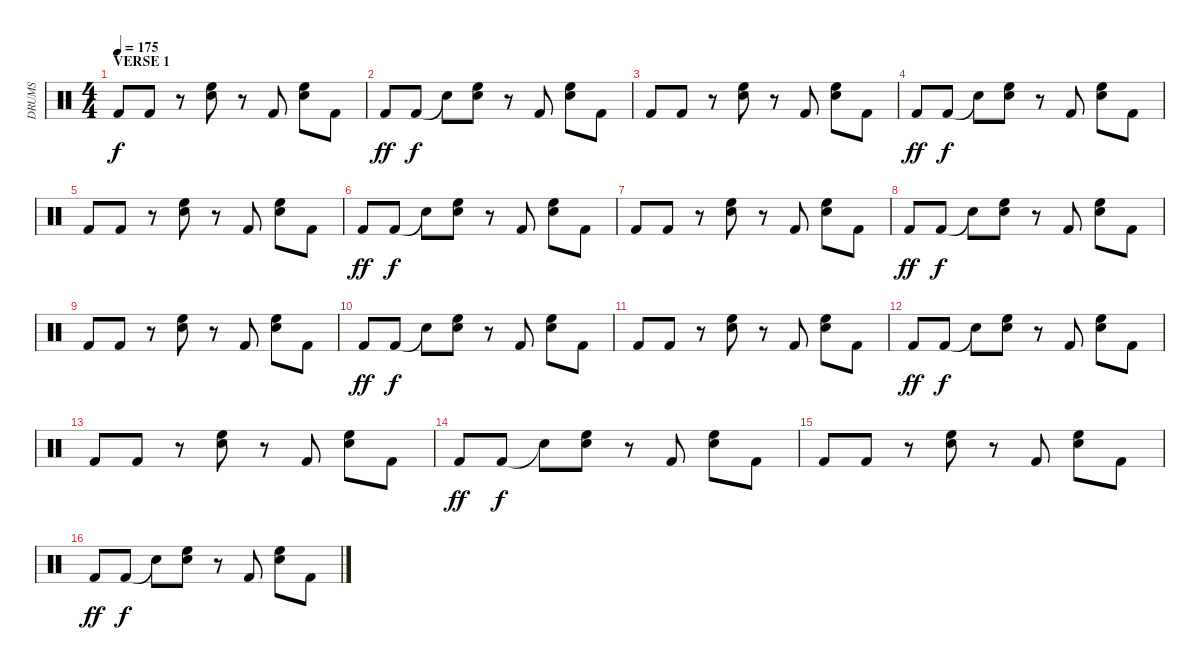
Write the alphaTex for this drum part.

\track ("DRUMS" "DRUMS") {instrument percussion}
\staff {score}
\articulation defaults
\ts (4 4)
\section ("" "VERSE 1")
\tempo 175
\clef neutral
\ks c "Kick (hit) 2".8{dy f} "Kick (hit) 2".8
r.8 ("High Floor Tom (hit)" "Electric Snare (hit)").8 r.8 "Kick (hit) 2".8 ("High Floor Tom (hit)" "Electric Snare (hit)").8 "Kick (hit) 2".8 |
"Kick (hit) 2".8{dy ff} "Kick (hit) 2".8{dy f} "Snare (hit)"{t}.8 ("High Floor Tom (hit)" "Electric Snare (hit)").8 r.8 "Kick (hit) 2".8 ("High Floor Tom (hit)" "Electric Snare (hit)").8 "Kick (hit) 2".8 |
"Kick (hit) 2".8 "Kick (hit) 2".8 r.8 ("High Floor Tom (hit)" "Electric Snare (hit)").8 r.8 "Kick (hit) 2".8 ("High Floor Tom (hit)" "Electric Snare (hit)").8 "Kick (hit) 2".8 |
"Kick (hit) 2".8{dy ff} "Kick (hit) 2".8{dy f} "Snare (hit)"{t}.8 ("High Floor Tom (hit)" "Electric Snare (hit)").8 r.8 "Kick (hit) 2".8 ("High Floor Tom (hit)" "Electric Snare (hit)").8 "Kick (hit) 2".8 |
"Kick (hit) 2".8 "Kick (hit) 2".8 r.8 ("High Floor Tom (hit)" "Electric Snare (hit)").8 r.8 "Kick (hit) 2".8 ("High Floor Tom (hit)" "Electric Snare (hit)").8 "Kick (hit) 2".8 |
"Kick (hit) 2".8{dy ff} "Kick (hit) 2".8{dy f} "Snare (hit)"{t}.8 ("High Floor Tom (hit)" "Electric Snare (hit)").8 r.8 "Kick (hit) 2".8 ("High Floor Tom (hit)" "Electric Snare (hit)").8 "Kick (hit) 2".8 |
"Kick (hit) 2".8 "Kick (hit) 2".8 r.8 ("High Floor Tom (hit)" "Electric Snare (hit)").8 r.8 "Kick (hit) 2".8 ("High Floor Tom (hit)" "Electric Snare (hit)").8 "Kick (hit) 2".8 |
"Kick (hit) 2".8{dy ff} "Kick (hit) 2".8{dy f} "Snare (hit)"{t}.8 ("High Floor Tom (hit)" "Electric Snare (hit)").8 r.8 "Kick (hit) 2".8 ("High Floor Tom (hit)" "Electric Snare (hit)").8 "Kick (hit) 2".8 |
"Kick (hit) 2".8 "Kick (hit) 2".8 r.8 ("High Floor Tom (hit)" "Electric Snare (hit)").8 r.8 "Kick (hit) 2".8 ("High Floor Tom (hit)" "Electric Snare (hit)").8 "Kick (hit) 2".8 |
"Kick (hit) 2".8{dy ff} "Kick (hit) 2".8{dy f} "Snare (hit)"{t}.8 ("High Floor Tom (hit)" "Electric Snare (hit)").8 r.8 "Kick (hit) 2".8 ("High Floor Tom (hit)" "Electric Snare (hit)").8 "Kick (hit) 2".8 |
"Kick (hit) 2".8 "Kick (hit) 2".8 r.8 ("High Floor Tom (hit)" "Electric Snare (hit)").8 r.8 "Kick (hit) 2".8 ("High Floor Tom (hit)" "Electric Snare (hit)").8 "Kick (hit) 2".8 |
"Kick (hit) 2".8{dy ff} "Kick (hit) 2".8{dy f} "Snare (hit)"{t}.8 ("High Floor Tom (hit)" "Electric Snare (hit)").8 r.8 "Kick (hit) 2".8 ("High Floor Tom (hit)" "Electric Snare (hit)").8 "Kick (hit) 2".8 |
"Kick (hit) 2".8 "Kick (hit) 2".8 r.8 ("High Floor Tom (hit)" "Electric Snare (hit)").8 r.8 "Kick (hit) 2".8 ("High Floor Tom (hit)" "Electric Snare (hit)").8 "Kick (hit) 2".8 |
"Kick (hit) 2".8{dy ff} "Kick (hit) 2".8{dy f} "Snare (hit)"{t}.8 ("High Floor Tom (hit)" "Electric Snare (hit)").8 r.8 "Kick (hit) 2".8 ("High Floor Tom (hit)" "Electric Snare (hit)").8 "Kick (hit) 2".8 |
"Kick (hit) 2".8 "Kick (hit) 2".8 r.8 ("High Floor Tom (hit)" "Electric Snare (hit)").8 r.8 "Kick (hit) 2".8 ("High Floor Tom (hit)" "Electric Snare (hit)").8 "Kick (hit) 2".8 |
"Kick (hit) 2".8{dy ff} "Kick (hit) 2".8{dy f} "Snare (hit)"{t}.8 ("High Floor Tom (hit)" "Electric Snare (hit)").8 r.8 "Kick (hit) 2".8 ("High Floor Tom (hit)" "Electric Snare (hit)").8 "Kick (hit) 2".8
